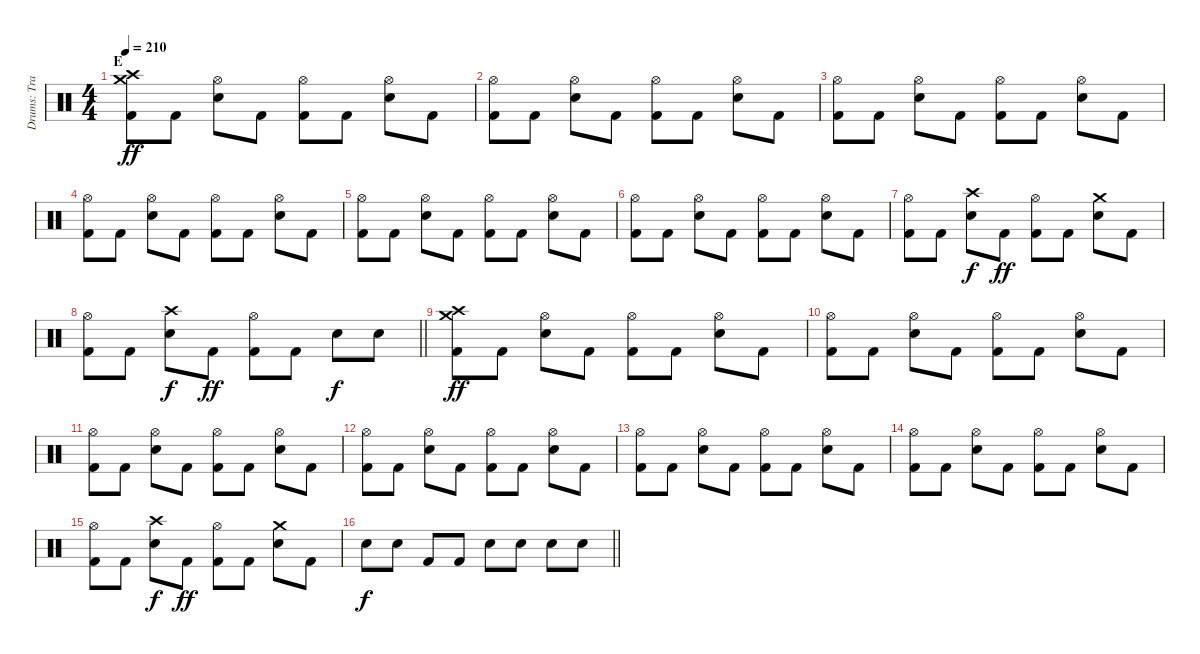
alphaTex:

\track ("Drums: Trav Clarke" "Drums: Tra") {instrument percussion}
\staff {score}
\articulation defaults
\ts (4 4)
\section ("" "E")
\tempo 210
\clef neutral
\ks c
("Kick (hit) 2" "Crash high (hit)" "Crash medium (hit)").8{dy ff} "Kick (hit) 2".8 ("Snare (hit) 2" "Hi-Hat (open)").8 "Kick (hit) 2".8 ("Kick (hit) 2" "Hi-Hat (open)").8 "Kick (hit) 2".8 ("Snare (hit) 2" "Hi-Hat (open)").8 "Kick (hit) 2".8 |
("Kick (hit) 2" "Hi-Hat (open)").8 "Kick (hit) 2".8 ("Snare (hit) 2" "Hi-Hat (open)").8 "Kick (hit) 2".8 ("Kick (hit) 2" "Hi-Hat (open)").8 "Kick (hit) 2".8 ("Snare (hit) 2" "Hi-Hat (open)").8 "Kick (hit) 2".8 |
("Kick (hit) 2" "Hi-Hat (open)").8 "Kick (hit) 2".8 ("Snare (hit) 2" "Hi-Hat (open)").8 "Kick (hit) 2".8 ("Kick (hit) 2" "Hi-Hat (open)").8 "Kick (hit) 2".8 ("Snare (hit) 2" "Hi-Hat (open)").8 "Kick (hit) 2".8 |
("Kick (hit) 2" "Hi-Hat (open)").8 "Kick (hit) 2".8 ("Snare (hit) 2" "Hi-Hat (open)").8 "Kick (hit) 2".8 ("Kick (hit) 2" "Hi-Hat (open)").8 "Kick (hit) 2".8 ("Snare (hit) 2" "Hi-Hat (open)").8 "Kick (hit) 2".8 |
("Kick (hit) 2" "Hi-Hat (open)").8 "Kick (hit) 2".8 ("Snare (hit) 2" "Hi-Hat (open)").8 "Kick (hit) 2".8 ("Kick (hit) 2" "Hi-Hat (open)").8 "Kick (hit) 2".8 ("Snare (hit) 2" "Hi-Hat (open)").8 "Kick (hit) 2".8 |
("Kick (hit) 2" "Hi-Hat (open)").8 "Kick (hit) 2".8 ("Snare (hit) 2" "Hi-Hat (open)").8 "Kick (hit) 2".8 ("Kick (hit) 2" "Hi-Hat (open)").8 "Kick (hit) 2".8 ("Snare (hit) 2" "Hi-Hat (open)").8 "Kick (hit) 2".8 |
("Kick (hit) 2" "Hi-Hat (open)").8 "Kick (hit) 2".8 ("Snare (hit) 2" "Crash high (hit)").8{dy f} "Kick (hit) 2".8{dy ff} ("Kick (hit) 2" "Hi-Hat (open)").8 "Kick (hit) 2".8 ("Snare (hit) 2" "Crash medium (hit)").8 "Kick (hit) 2".8 |
\barLineRight lightlight
("Kick (hit) 2" "Hi-Hat (open)").8 "Kick (hit) 2".8 ("Snare (hit) 2" "Crash high (hit)").8{dy f} "Kick (hit) 2".8{dy ff} ("Kick (hit) 2" "Hi-Hat (open)").8 "Kick (hit) 2".8 "Snare (hit) 2".8{dy f} "Snare (hit) 2".8 |
("Kick (hit) 2" "Crash high (hit)" "Crash medium (hit)").8{dy ff} "Kick (hit) 2".8 ("Snare (hit) 2" "Hi-Hat (open)").8 "Kick (hit) 2".8 ("Kick (hit) 2" "Hi-Hat (open)").8 "Kick (hit) 2".8 ("Snare (hit) 2" "Hi-Hat (open)").8 "Kick (hit) 2".8 |
("Kick (hit) 2" "Hi-Hat (open)").8 "Kick (hit) 2".8 ("Snare (hit) 2" "Hi-Hat (open)").8 "Kick (hit) 2".8 ("Kick (hit) 2" "Hi-Hat (open)").8 "Kick (hit) 2".8 ("Snare (hit) 2" "Hi-Hat (open)").8 "Kick (hit) 2".8 |
("Kick (hit) 2" "Hi-Hat (open)").8 "Kick (hit) 2".8 ("Snare (hit) 2" "Hi-Hat (open)").8 "Kick (hit) 2".8 ("Kick (hit) 2" "Hi-Hat (open)").8 "Kick (hit) 2".8 ("Snare (hit) 2" "Hi-Hat (open)").8 "Kick (hit) 2".8 |
("Kick (hit) 2" "Hi-Hat (open)").8 "Kick (hit) 2".8 ("Snare (hit) 2" "Hi-Hat (open)").8 "Kick (hit) 2".8 ("Kick (hit) 2" "Hi-Hat (open)").8 "Kick (hit) 2".8 ("Snare (hit) 2" "Hi-Hat (open)").8 "Kick (hit) 2".8 |
("Kick (hit) 2" "Hi-Hat (open)").8 "Kick (hit) 2".8 ("Snare (hit) 2" "Hi-Hat (open)").8 "Kick (hit) 2".8 ("Kick (hit) 2" "Hi-Hat (open)").8 "Kick (hit) 2".8 ("Snare (hit) 2" "Hi-Hat (open)").8 "Kick (hit) 2".8 |
("Kick (hit) 2" "Hi-Hat (open)").8 "Kick (hit) 2".8 ("Snare (hit) 2" "Hi-Hat (open)").8 "Kick (hit) 2".8 ("Kick (hit) 2" "Hi-Hat (open)").8 "Kick (hit) 2".8 ("Snare (hit) 2" "Hi-Hat (open)").8 "Kick (hit) 2".8 |
("Kick (hit) 2" "Hi-Hat (open)").8 "Kick (hit) 2".8 ("Snare (hit) 2" "Crash high (hit)").8{dy f} "Kick (hit) 2".8{dy ff} ("Kick (hit) 2" "Hi-Hat (open)").8 "Kick (hit) 2".8 ("Snare (hit) 2" "Crash medium (hit)").8 "Kick (hit) 2".8 |
\barLineRight lightlight "Snare (hit) 2".8{dy f} "Snare (hit) 2".8 "Kick (hit) 2".8 "Kick (hit) 2".8 "Snare (hit) 2".8 "Snare (hit) 2".8 "Snare (hit) 2".8 "Snare (hit) 2".8
